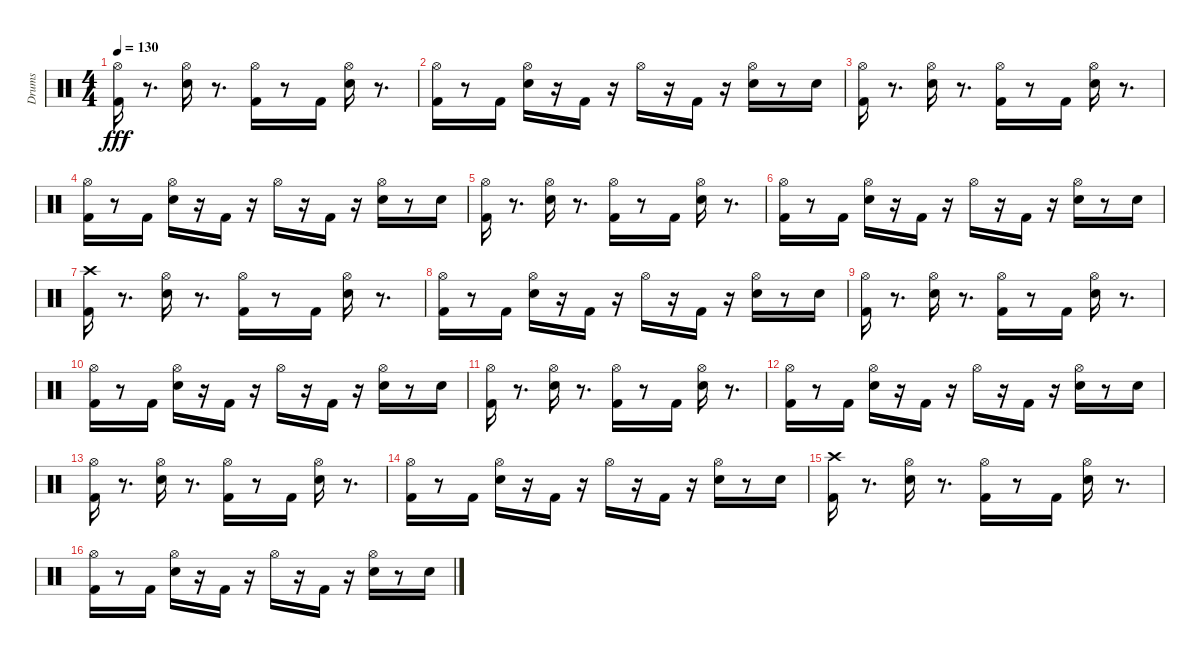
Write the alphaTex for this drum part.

\track ("Drums" "Drums") {instrument percussion}
\staff {score}
\articulation defaults
\ts (4 4)
\tempo 130
\clef neutral
\ks c
("Hi-Hat (open)" "Kick (hit) 2").16{dy fff} r.8{d} ("Hi-Hat (open)" "Snare (hit) 2").16 r.8{d} ("Hi-Hat (open)" "Kick (hit) 2").16 r.8 "Kick (hit) 2".16 ("Hi-Hat (open)" "Snare (hit) 2").16 r.8{d} |
("Hi-Hat (open)" "Kick (hit) 2").16 r.8 "Kick (hit) 2".16 ("Hi-Hat (open)" "Snare (hit) 2").16 r.16 "Kick (hit) 2".16 r.16 "Hi-Hat (open)".16 r.16 "Kick (hit) 2".16 r.16 ("Hi-Hat (open)" "Snare (hit) 2").16 r.8 "Snare (hit) 2".16 |
("Hi-Hat (open)" "Kick (hit) 2").16 r.8{d} ("Hi-Hat (open)" "Snare (hit) 2").16 r.8{d} ("Hi-Hat (open)" "Kick (hit) 2").16 r.8 "Kick (hit) 2".16 ("Hi-Hat (open)" "Snare (hit) 2").16 r.8{d} |
("Hi-Hat (open)" "Kick (hit) 2").16 r.8 "Kick (hit) 2".16 ("Hi-Hat (open)" "Snare (hit) 2").16 r.16 "Kick (hit) 2".16 r.16 "Hi-Hat (open)".16 r.16 "Kick (hit) 2".16 r.16 ("Hi-Hat (open)" "Snare (hit) 2").16 r.8 "Snare (hit) 2".16 |
("Hi-Hat (open)" "Kick (hit) 2").16 r.8{d} ("Hi-Hat (open)" "Snare (hit) 2").16 r.8{d} ("Hi-Hat (open)" "Kick (hit) 2").16 r.8 "Kick (hit) 2".16 ("Hi-Hat (open)" "Snare (hit) 2").16 r.8{d} |
("Hi-Hat (open)" "Kick (hit) 2").16 r.8 "Kick (hit) 2".16 ("Hi-Hat (open)" "Snare (hit) 2").16 r.16 "Kick (hit) 2".16 r.16 "Hi-Hat (open)".16 r.16 "Kick (hit) 2".16 r.16 ("Hi-Hat (open)" "Snare (hit) 2").16 r.8 "Snare (hit) 2".16 |
("Crash high (hit)" "Kick (hit) 2").16 r.8{d} ("Hi-Hat (open)" "Snare (hit) 2").16 r.8{d} ("Hi-Hat (open)" "Kick (hit) 2").16 r.8 "Kick (hit) 2".16 ("Hi-Hat (open)" "Snare (hit) 2").16 r.8{d} |
("Hi-Hat (open)" "Kick (hit) 2").16 r.8 "Kick (hit) 2".16 ("Hi-Hat (open)" "Snare (hit) 2").16 r.16 "Kick (hit) 2".16 r.16 "Hi-Hat (open)".16 r.16 "Kick (hit) 2".16 r.16 ("Hi-Hat (open)" "Snare (hit) 2").16 r.8 "Snare (hit) 2".16 |
("Hi-Hat (open)" "Kick (hit) 2").16 r.8{d} ("Hi-Hat (open)" "Snare (hit) 2").16 r.8{d} ("Hi-Hat (open)" "Kick (hit) 2").16 r.8 "Kick (hit) 2".16 ("Hi-Hat (open)" "Snare (hit) 2").16 r.8{d} |
("Hi-Hat (open)" "Kick (hit) 2").16 r.8 "Kick (hit) 2".16 ("Hi-Hat (open)" "Snare (hit) 2").16 r.16 "Kick (hit) 2".16 r.16 "Hi-Hat (open)".16 r.16 "Kick (hit) 2".16 r.16 ("Hi-Hat (open)" "Snare (hit) 2").16 r.8 "Snare (hit) 2".16 |
("Hi-Hat (open)" "Kick (hit) 2").16 r.8{d} ("Hi-Hat (open)" "Snare (hit) 2").16 r.8{d} ("Hi-Hat (open)" "Kick (hit) 2").16 r.8 "Kick (hit) 2".16 ("Hi-Hat (open)" "Snare (hit) 2").16 r.8{d} |
("Hi-Hat (open)" "Kick (hit) 2").16 r.8 "Kick (hit) 2".16 ("Hi-Hat (open)" "Snare (hit) 2").16 r.16 "Kick (hit) 2".16 r.16 "Hi-Hat (open)".16 r.16 "Kick (hit) 2".16 r.16 ("Hi-Hat (open)" "Snare (hit) 2").16 r.8 "Snare (hit) 2".16 |
("Hi-Hat (open)" "Kick (hit) 2").16 r.8{d} ("Hi-Hat (open)" "Snare (hit) 2").16 r.8{d} ("Hi-Hat (open)" "Kick (hit) 2").16 r.8 "Kick (hit) 2".16 ("Hi-Hat (open)" "Snare (hit) 2").16 r.8{d} |
("Hi-Hat (open)" "Kick (hit) 2").16 r.8 "Kick (hit) 2".16 ("Hi-Hat (open)" "Snare (hit) 2").16 r.16 "Kick (hit) 2".16 r.16 "Hi-Hat (open)".16 r.16 "Kick (hit) 2".16 r.16 ("Hi-Hat (open)" "Snare (hit) 2").16 r.8 "Snare (hit) 2".16 |
("Crash high (hit)" "Kick (hit) 2").16 r.8{d} ("Hi-Hat (open)" "Snare (hit) 2").16 r.8{d} ("Hi-Hat (open)" "Kick (hit) 2").16 r.8 "Kick (hit) 2".16 ("Hi-Hat (open)" "Snare (hit) 2").16 r.8{d} |
("Hi-Hat (open)" "Kick (hit) 2").16 r.8 "Kick (hit) 2".16 ("Hi-Hat (open)" "Snare (hit) 2").16 r.16 "Kick (hit) 2".16 r.16 "Hi-Hat (open)".16 r.16 "Kick (hit) 2".16 r.16 ("Hi-Hat (open)" "Snare (hit) 2").16 r.8 "Snare (hit) 2".16
